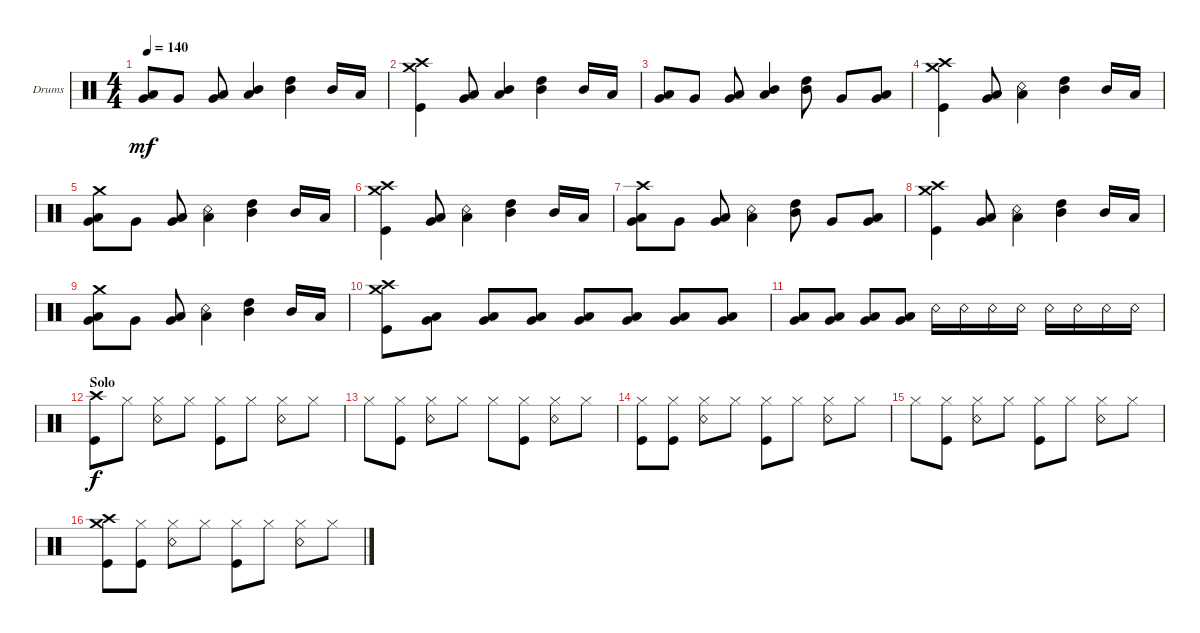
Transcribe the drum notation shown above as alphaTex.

\bracketExtendMode groupsimilarinstruments
\firstSystemTrackNameOrientation horizontal
\otherSystemsTrackNameOrientation horizontal
\track ("Drumkit" "Drums") {instrument percussion}
\staff {score}
\articulation defaults
\ts (4 4)
\tempo 140
\clef neutral
\ks c
("Low Tom (hit)" "Very Low Tom (hit)").8{dy mf} "Very Low Tom (hit)".8 ("Low Tom (hit)" "Very Low Tom (hit)").8 ("Mid Tom (hit)" "Low Tom (hit)").4 ("Mid Tom (hit)" "High Tom (hit)").4 "Mid Tom (hit)".16 "Low Tom (hit)".16 |
("Crash medium (hit)" "Crash high (hit)" "Kick (hit)").4 ("Low Tom (hit)" "Very Low Tom (hit)").8 ("Low Tom (hit)" "Mid Tom (hit)").4 ("Mid Tom (hit)" "High Tom (hit)").4 "Mid Tom (hit)".16 "Low Tom (hit)".16 |
("Low Tom (hit)" "Very Low Tom (hit)").8 "Very Low Tom (hit)".8 ("Low Tom (hit)" "Very Low Tom (hit)").8 ("Mid Tom (hit)" "Low Tom (hit)").4 ("Mid Tom (hit)" "High Tom (hit)").8 "Very Low Tom (hit)".8 ("Low Tom (hit)" "Very Low Tom (hit)").8 |
("Crash medium (hit)" "Crash high (hit)" "Kick (hit)").4 ("Low Tom (hit)" "Very Low Tom (hit)").8 ("Low Tom (hit)" "Snare (rim shot)").4 ("Mid Tom (hit)" "High Tom (hit)").4 "Mid Tom (hit)".16 "Low Tom (hit)".16 |
("Low Tom (hit)" "Very Low Tom (hit)" "Crash medium (hit)").8 "Very Low Tom (hit)".8 ("Low Tom (hit)" "Very Low Tom (hit)").8 ("Low Tom (hit)" "Snare (rim shot)").4 ("Mid Tom (hit)" "High Tom (hit)").4 "Mid Tom (hit)".16 "Low Tom (hit)".16 |
("Crash medium (hit)" "Crash high (hit)" "Kick (hit)").4 ("Low Tom (hit)" "Very Low Tom (hit)").8 ("Low Tom (hit)" "Snare (rim shot)").4 ("Mid Tom (hit)" "High Tom (hit)").4 "Mid Tom (hit)".16 "Low Tom (hit)".16 |
("Low Tom (hit)" "Very Low Tom (hit)" "Crash high (hit)").8 "Very Low Tom (hit)".8 ("Low Tom (hit)" "Very Low Tom (hit)").8 ("Low Tom (hit)" "Snare (rim shot)").4 ("Mid Tom (hit)" "High Tom (hit)").8 "Very Low Tom (hit)".8 ("Low Tom (hit)" "Very Low Tom (hit)").8 |
("Crash medium (hit)" "Crash high (hit)" "Kick (hit)").4 ("Low Tom (hit)" "Very Low Tom (hit)").8 ("Low Tom (hit)" "Snare (rim shot)").4 ("Mid Tom (hit)" "High Tom (hit)").4 "Mid Tom (hit)".16 "Low Tom (hit)".16 |
("Low Tom (hit)" "Very Low Tom (hit)" "Crash medium (hit)").8 "Very Low Tom (hit)".8 ("Low Tom (hit)" "Very Low Tom (hit)").8 ("Low Tom (hit)" "Snare (rim shot)").4 ("Mid Tom (hit)" "High Tom (hit)").4 "Mid Tom (hit)".16 "Low Tom (hit)".16 |
("Kick (hit)" "Crash high (hit)" "Crash medium (hit)").8 ("Very Low Tom (hit)" "Low Tom (hit)").8 ("Low Tom (hit)" "Very Low Tom (hit)").8 ("Low Tom (hit)" "Very Low Tom (hit)").8 ("Low Tom (hit)" "Very Low Tom (hit)").8 ("Low Tom (hit)" "Very Low Tom (hit)").8 ("Low Tom (hit)" "Very Low Tom (hit)").8 ("Low Tom (hit)" "Very Low Tom (hit)").8 |
("Very Low Tom (hit)" "Low Tom (hit)").8 ("Very Low Tom (hit)" "Low Tom (hit)").8 ("Very Low Tom (hit)" "Low Tom (hit)").8 ("Very Low Tom (hit)" "Low Tom (hit)").8 "Snare (rim shot)".16 "Snare (rim shot)".16 "Snare (rim shot)".16 "Snare (rim shot)".16 "Snare (rim shot)".16 "Snare (rim shot)".16 "Snare (rim shot)".16 "Snare (rim shot)".16 |
\section ("" "Solo")
("Kick (hit)" "Crash high (hit)").8{dy f} "Hi-Hat (closed)".8 ("Hi-Hat (closed)" "Snare (rim shot)").8 "Hi-Hat (closed)".8 ("Hi-Hat (closed)" "Kick (hit)").8 "Hi-Hat (closed)".8 ("Hi-Hat (closed)" "Snare (rim shot)").8 "Hi-Hat (closed)".8 |
"Hi-Hat (closed)".8 ("Hi-Hat (closed)" "Kick (hit)").8 ("Hi-Hat (closed)" "Snare (rim shot)").8 "Hi-Hat (closed)".8 "Hi-Hat (closed)".8 ("Hi-Hat (closed)" "Kick (hit)").8 ("Hi-Hat (closed)" "Snare (rim shot)").8 "Hi-Hat (closed)".8 |
("Hi-Hat (closed)" "Kick (hit)").8 ("Hi-Hat (closed)" "Kick (hit)").8 ("Hi-Hat (closed)" "Snare (rim shot)").8 "Hi-Hat (closed)".8 ("Hi-Hat (closed)" "Kick (hit)").8 "Hi-Hat (closed)".8 ("Hi-Hat (closed)" "Snare (rim shot)").8 "Hi-Hat (closed)".8 |
"Hi-Hat (closed)".8 ("Hi-Hat (closed)" "Kick (hit)").8 ("Hi-Hat (closed)" "Snare (rim shot)").8 "Hi-Hat (closed)".8 ("Hi-Hat (closed)" "Kick (hit)").8 "Hi-Hat (closed)".8 ("Hi-Hat (closed)" "Snare (rim shot)").8 "Hi-Hat (closed)".8 |
("Kick (hit)" "Crash high (hit)" "Crash medium (hit)").8 ("Hi-Hat (closed)" "Kick (hit)").8 ("Hi-Hat (closed)" "Snare (rim shot)").8 "Hi-Hat (closed)".8 ("Hi-Hat (closed)" "Kick (hit)").8 "Hi-Hat (closed)".8 ("Hi-Hat (closed)" "Snare (rim shot)").8 "Hi-Hat (closed)".8
